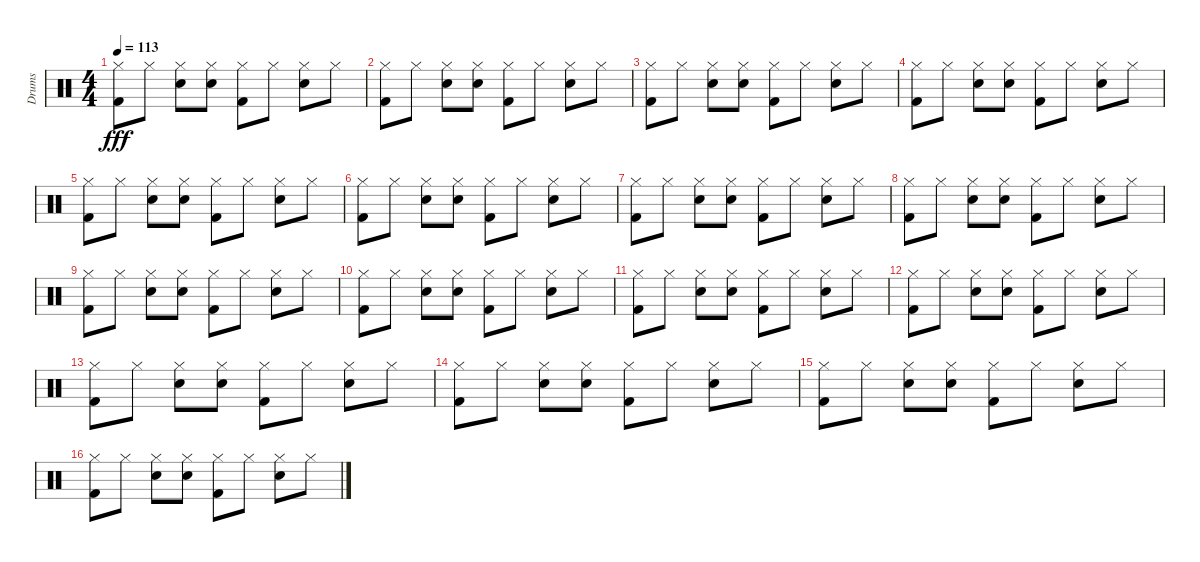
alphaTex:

\track ("Drums" "Drums") {instrument percussion}
\staff {score}
\articulation defaults
\ts (4 4)
\tempo 113
\clef neutral
\ks c
("Hi-Hat (closed)" "Kick (hit) 2").8{dy fff} "Hi-Hat (closed)".8 ("Hi-Hat (closed)" "Electric Snare (hit)").8 ("Hi-Hat (closed)" "Electric Snare (hit)").8 ("Hi-Hat (closed)" "Kick (hit) 2").8 "Hi-Hat (closed)".8 ("Hi-Hat (closed)" "Electric Snare (hit)").8 "Hi-Hat (closed)".8 |
("Hi-Hat (closed)" "Kick (hit) 2").8 "Hi-Hat (closed)".8 ("Hi-Hat (closed)" "Electric Snare (hit)").8 ("Hi-Hat (closed)" "Electric Snare (hit)").8 ("Hi-Hat (closed)" "Kick (hit) 2").8 "Hi-Hat (closed)".8 ("Hi-Hat (closed)" "Electric Snare (hit)").8 "Hi-Hat (closed)".8 |
("Hi-Hat (closed)" "Kick (hit) 2").8 "Hi-Hat (closed)".8 ("Hi-Hat (closed)" "Electric Snare (hit)").8 ("Hi-Hat (closed)" "Electric Snare (hit)").8 ("Hi-Hat (closed)" "Kick (hit) 2").8 "Hi-Hat (closed)".8 ("Hi-Hat (closed)" "Electric Snare (hit)").8 "Hi-Hat (closed)".8 |
("Hi-Hat (closed)" "Kick (hit) 2").8 "Hi-Hat (closed)".8 ("Hi-Hat (closed)" "Electric Snare (hit)").8 ("Hi-Hat (closed)" "Electric Snare (hit)").8 ("Hi-Hat (closed)" "Kick (hit) 2").8 "Hi-Hat (closed)".8 ("Hi-Hat (closed)" "Electric Snare (hit)").8 "Hi-Hat (closed)".8 |
("Hi-Hat (closed)" "Kick (hit) 2").8 "Hi-Hat (closed)".8 ("Hi-Hat (closed)" "Electric Snare (hit)").8 ("Hi-Hat (closed)" "Electric Snare (hit)").8 ("Hi-Hat (closed)" "Kick (hit) 2").8 "Hi-Hat (closed)".8 ("Hi-Hat (closed)" "Electric Snare (hit)").8 "Hi-Hat (closed)".8 |
("Hi-Hat (closed)" "Kick (hit) 2").8 "Hi-Hat (closed)".8 ("Hi-Hat (closed)" "Electric Snare (hit)").8 ("Hi-Hat (closed)" "Electric Snare (hit)").8 ("Hi-Hat (closed)" "Kick (hit) 2").8 "Hi-Hat (closed)".8 ("Hi-Hat (closed)" "Electric Snare (hit)").8 "Hi-Hat (closed)".8 |
("Hi-Hat (closed)" "Kick (hit) 2").8 "Hi-Hat (closed)".8 ("Hi-Hat (closed)" "Electric Snare (hit)").8 ("Hi-Hat (closed)" "Electric Snare (hit)").8 ("Hi-Hat (closed)" "Kick (hit) 2").8 "Hi-Hat (closed)".8 ("Hi-Hat (closed)" "Electric Snare (hit)").8 "Hi-Hat (closed)".8 |
("Hi-Hat (closed)" "Kick (hit) 2").8 "Hi-Hat (closed)".8 ("Hi-Hat (closed)" "Electric Snare (hit)").8 ("Hi-Hat (closed)" "Electric Snare (hit)").8 ("Hi-Hat (closed)" "Kick (hit) 2").8 "Hi-Hat (closed)".8 ("Hi-Hat (closed)" "Electric Snare (hit)").8 "Hi-Hat (closed)".8 |
("Hi-Hat (closed)" "Kick (hit) 2").8 "Hi-Hat (closed)".8 ("Hi-Hat (closed)" "Electric Snare (hit)").8 ("Hi-Hat (closed)" "Electric Snare (hit)").8 ("Hi-Hat (closed)" "Kick (hit) 2").8 "Hi-Hat (closed)".8 ("Hi-Hat (closed)" "Electric Snare (hit)").8 "Hi-Hat (closed)".8 |
("Hi-Hat (closed)" "Kick (hit) 2").8 "Hi-Hat (closed)".8 ("Hi-Hat (closed)" "Electric Snare (hit)").8 ("Hi-Hat (closed)" "Electric Snare (hit)").8 ("Hi-Hat (closed)" "Kick (hit) 2").8 "Hi-Hat (closed)".8 ("Hi-Hat (closed)" "Electric Snare (hit)").8 "Hi-Hat (closed)".8 |
("Hi-Hat (closed)" "Kick (hit) 2").8 "Hi-Hat (closed)".8 ("Hi-Hat (closed)" "Electric Snare (hit)").8 ("Hi-Hat (closed)" "Electric Snare (hit)").8 ("Hi-Hat (closed)" "Kick (hit) 2").8 "Hi-Hat (closed)".8 ("Hi-Hat (closed)" "Electric Snare (hit)").8 "Hi-Hat (closed)".8 |
("Hi-Hat (closed)" "Kick (hit) 2").8 "Hi-Hat (closed)".8 ("Hi-Hat (closed)" "Electric Snare (hit)").8 ("Hi-Hat (closed)" "Electric Snare (hit)").8 ("Hi-Hat (closed)" "Kick (hit) 2").8 "Hi-Hat (closed)".8 ("Hi-Hat (closed)" "Electric Snare (hit)").8 "Hi-Hat (closed)".8 |
("Hi-Hat (closed)" "Kick (hit) 2").8 "Hi-Hat (closed)".8 ("Hi-Hat (closed)" "Electric Snare (hit)").8 ("Hi-Hat (closed)" "Electric Snare (hit)").8 ("Hi-Hat (closed)" "Kick (hit) 2").8 "Hi-Hat (closed)".8 ("Hi-Hat (closed)" "Electric Snare (hit)").8 "Hi-Hat (closed)".8 |
("Hi-Hat (closed)" "Kick (hit) 2").8 "Hi-Hat (closed)".8 ("Hi-Hat (closed)" "Electric Snare (hit)").8 ("Hi-Hat (closed)" "Electric Snare (hit)").8 ("Hi-Hat (closed)" "Kick (hit) 2").8 "Hi-Hat (closed)".8 ("Hi-Hat (closed)" "Electric Snare (hit)").8 "Hi-Hat (closed)".8 |
("Hi-Hat (closed)" "Kick (hit) 2").8 "Hi-Hat (closed)".8 ("Hi-Hat (closed)" "Electric Snare (hit)").8 ("Hi-Hat (closed)" "Electric Snare (hit)").8 ("Hi-Hat (closed)" "Kick (hit) 2").8 "Hi-Hat (closed)".8 ("Hi-Hat (closed)" "Electric Snare (hit)").8 "Hi-Hat (closed)".8 |
("Hi-Hat (closed)" "Kick (hit) 2").8 "Hi-Hat (closed)".8 ("Hi-Hat (closed)" "Electric Snare (hit)").8 ("Hi-Hat (closed)" "Electric Snare (hit)").8 ("Hi-Hat (closed)" "Kick (hit) 2").8 "Hi-Hat (closed)".8 ("Hi-Hat (closed)" "Electric Snare (hit)").8 "Hi-Hat (closed)".8
